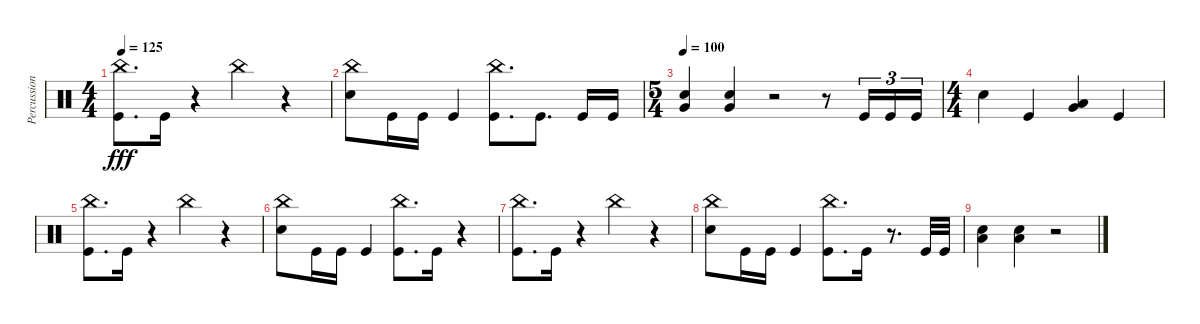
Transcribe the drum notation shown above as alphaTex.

\track ("Percussion" "Percussion") {instrument percussion}
\staff {score}
\articulation defaults
\ts (4 4)
\tempo 125
\clef neutral
\ks c
("China (hit)" "Kick (hit)").8{d dy fff} "Kick (hit)".16 r.4 "China (hit)".4 r.4 |
("China (hit)" "Snare (hit) 2").8 "Kick (hit)".16 "Kick (hit)".16 "Kick (hit)".4 ("China (hit)" "Kick (hit)").8{d} "Kick (hit)".8{d} "Kick (hit)".16 "Kick (hit)".16 |
\ts (5 4)
\tempo 100
("Very Low Tom (hit)" "Snare (hit) 2").4 ("Very Low Tom (hit)" "Snare (hit) 2").4 r.2 r.8 "Kick (hit)".16{tu (3 2)} "Kick (hit)".16{tu (3 2)} "Kick (hit)".16{tu (3 2)} |
\ts (4 4)
"Snare (hit) 2".4 "Kick (hit)".4 ("Low Tom (hit)" "Very Low Tom (hit)").4 "Kick (hit)".4 |
("China (hit)" "Kick (hit)").8{d} "Kick (hit)".16 r.4 "China (hit)".4 r.4 |
("China (hit)" "Snare (hit) 2").8 "Kick (hit)".16 "Kick (hit)".16 "Kick (hit)".4 ("China (hit)" "Kick (hit)").8{d} "Kick (hit)".16 r.4 |
("China (hit)" "Kick (hit)").8{d} "Kick (hit)".16 r.4 "China (hit)".4 r.4 |
("China (hit)" "Snare (hit) 2").8 "Kick (hit)".16 "Kick (hit)".16 "Kick (hit)".4 ("China (hit)" "Kick (hit)").8{d} "Kick (hit)".16 r.8{d} "Kick (hit)".32 "Kick (hit)".32 |
("Low Floor Tom (hit)" "Snare (hit) 2").4 ("Low Floor Tom (hit)" "Snare (hit) 2").4 r.2
